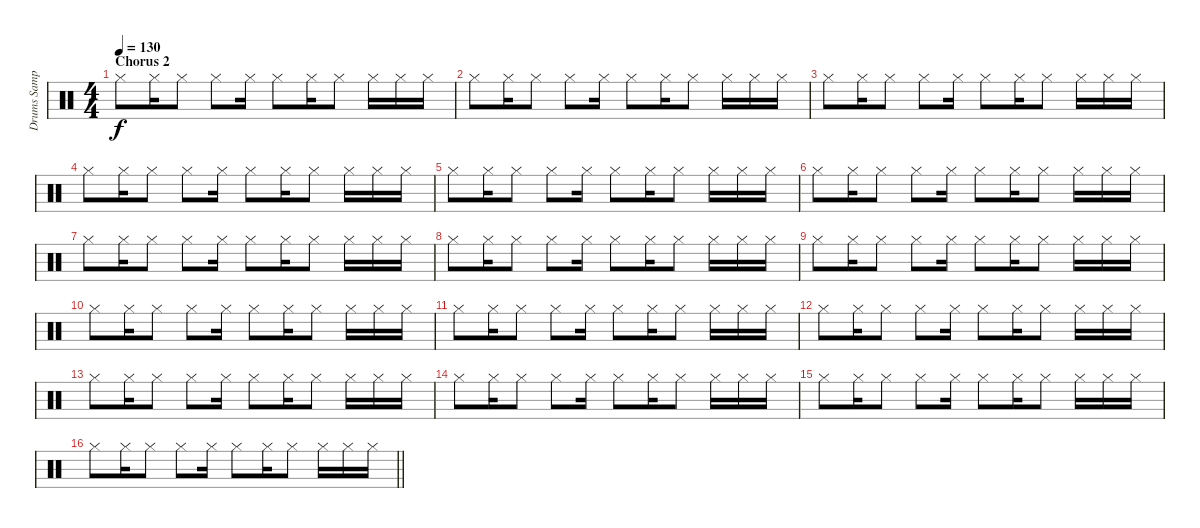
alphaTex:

\track ("Drums Sample" "Drums Samp") {instrument percussion}
\staff {score}
\articulation defaults
\ts (4 4)
\section ("" "Chorus 2")
\tempo 130
\clef neutral
\ks c "Hi-Hat (closed)".8{dy f} "Hi-Hat (closed)".16 "Hi-Hat (closed)".8 "Hi-Hat (closed)".8 "Hi-Hat (closed)".16 "Hi-Hat (closed)".8 "Hi-Hat (closed)".16 "Hi-Hat (closed)".8 "Hi-Hat (closed)".16 "Hi-Hat (closed)".16 "Hi-Hat (closed)".16
|
"Hi-Hat (closed)".8 "Hi-Hat (closed)".16 "Hi-Hat (closed)".8 "Hi-Hat (closed)".8 "Hi-Hat (closed)".16 "Hi-Hat (closed)".8 "Hi-Hat (closed)".16 "Hi-Hat (closed)".8 "Hi-Hat (closed)".16 "Hi-Hat (closed)".16 "Hi-Hat (closed)".16 |
"Hi-Hat (closed)".8 "Hi-Hat (closed)".16 "Hi-Hat (closed)".8 "Hi-Hat (closed)".8 "Hi-Hat (closed)".16 "Hi-Hat (closed)".8 "Hi-Hat (closed)".16 "Hi-Hat (closed)".8 "Hi-Hat (closed)".16 "Hi-Hat (closed)".16 "Hi-Hat (closed)".16 |
"Hi-Hat (closed)".8 "Hi-Hat (closed)".16 "Hi-Hat (closed)".8 "Hi-Hat (closed)".8 "Hi-Hat (closed)".16 "Hi-Hat (closed)".8 "Hi-Hat (closed)".16 "Hi-Hat (closed)".8 "Hi-Hat (closed)".16 "Hi-Hat (closed)".16 "Hi-Hat (closed)".16 |
"Hi-Hat (closed)".8 "Hi-Hat (closed)".16 "Hi-Hat (closed)".8 "Hi-Hat (closed)".8 "Hi-Hat (closed)".16 "Hi-Hat (closed)".8 "Hi-Hat (closed)".16 "Hi-Hat (closed)".8 "Hi-Hat (closed)".16 "Hi-Hat (closed)".16 "Hi-Hat (closed)".16 |
"Hi-Hat (closed)".8 "Hi-Hat (closed)".16 "Hi-Hat (closed)".8 "Hi-Hat (closed)".8 "Hi-Hat (closed)".16 "Hi-Hat (closed)".8 "Hi-Hat (closed)".16 "Hi-Hat (closed)".8 "Hi-Hat (closed)".16 "Hi-Hat (closed)".16 "Hi-Hat (closed)".16 |
"Hi-Hat (closed)".8 "Hi-Hat (closed)".16 "Hi-Hat (closed)".8 "Hi-Hat (closed)".8 "Hi-Hat (closed)".16 "Hi-Hat (closed)".8 "Hi-Hat (closed)".16 "Hi-Hat (closed)".8 "Hi-Hat (closed)".16 "Hi-Hat (closed)".16 "Hi-Hat (closed)".16 |
"Hi-Hat (closed)".8 "Hi-Hat (closed)".16 "Hi-Hat (closed)".8 "Hi-Hat (closed)".8 "Hi-Hat (closed)".16 "Hi-Hat (closed)".8 "Hi-Hat (closed)".16 "Hi-Hat (closed)".8 "Hi-Hat (closed)".16 "Hi-Hat (closed)".16 "Hi-Hat (closed)".16 |
"Hi-Hat (closed)".8 "Hi-Hat (closed)".16 "Hi-Hat (closed)".8 "Hi-Hat (closed)".8 "Hi-Hat (closed)".16 "Hi-Hat (closed)".8 "Hi-Hat (closed)".16 "Hi-Hat (closed)".8 "Hi-Hat (closed)".16 "Hi-Hat (closed)".16 "Hi-Hat (closed)".16 |
"Hi-Hat (closed)".8 "Hi-Hat (closed)".16 "Hi-Hat (closed)".8 "Hi-Hat (closed)".8 "Hi-Hat (closed)".16 "Hi-Hat (closed)".8 "Hi-Hat (closed)".16 "Hi-Hat (closed)".8 "Hi-Hat (closed)".16 "Hi-Hat (closed)".16 "Hi-Hat (closed)".16 |
"Hi-Hat (closed)".8 "Hi-Hat (closed)".16 "Hi-Hat (closed)".8 "Hi-Hat (closed)".8 "Hi-Hat (closed)".16 "Hi-Hat (closed)".8 "Hi-Hat (closed)".16 "Hi-Hat (closed)".8 "Hi-Hat (closed)".16 "Hi-Hat (closed)".16 "Hi-Hat (closed)".16 |
"Hi-Hat (closed)".8 "Hi-Hat (closed)".16 "Hi-Hat (closed)".8 "Hi-Hat (closed)".8 "Hi-Hat (closed)".16 "Hi-Hat (closed)".8 "Hi-Hat (closed)".16 "Hi-Hat (closed)".8 "Hi-Hat (closed)".16 "Hi-Hat (closed)".16 "Hi-Hat (closed)".16 |
"Hi-Hat (closed)".8 "Hi-Hat (closed)".16 "Hi-Hat (closed)".8 "Hi-Hat (closed)".8 "Hi-Hat (closed)".16 "Hi-Hat (closed)".8 "Hi-Hat (closed)".16 "Hi-Hat (closed)".8 "Hi-Hat (closed)".16 "Hi-Hat (closed)".16 "Hi-Hat (closed)".16 |
"Hi-Hat (closed)".8 "Hi-Hat (closed)".16 "Hi-Hat (closed)".8 "Hi-Hat (closed)".8 "Hi-Hat (closed)".16 "Hi-Hat (closed)".8 "Hi-Hat (closed)".16 "Hi-Hat (closed)".8 "Hi-Hat (closed)".16 "Hi-Hat (closed)".16 "Hi-Hat (closed)".16 |
"Hi-Hat (closed)".8 "Hi-Hat (closed)".16 "Hi-Hat (closed)".8 "Hi-Hat (closed)".8 "Hi-Hat (closed)".16 "Hi-Hat (closed)".8 "Hi-Hat (closed)".16 "Hi-Hat (closed)".8 "Hi-Hat (closed)".16 "Hi-Hat (closed)".16 "Hi-Hat (closed)".16 |
\barLineRight lightlight "Hi-Hat (closed)".8 "Hi-Hat (closed)".16 "Hi-Hat (closed)".8 "Hi-Hat (closed)".8 "Hi-Hat (closed)".16 "Hi-Hat (closed)".8 "Hi-Hat (closed)".16 "Hi-Hat (closed)".8 "Hi-Hat (closed)".16 "Hi-Hat (closed)".16 "Hi-Hat (closed)".16
